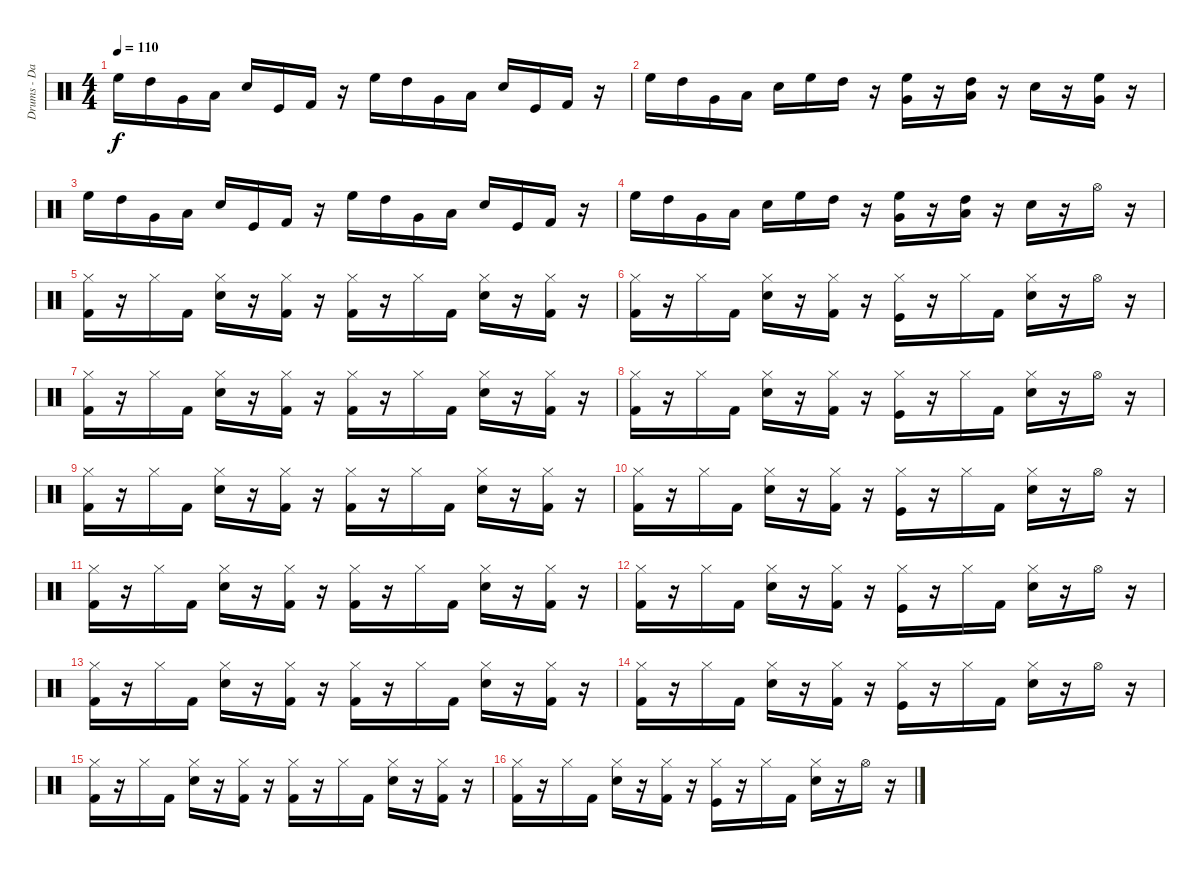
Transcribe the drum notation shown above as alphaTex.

\track ("Drums - David" "Drums - Da") {instrument percussion}
\staff {score}
\articulation defaults
\ts (4 4)
\tempo 110
\clef neutral
\ks c "High Floor Tom (hit)".16{dy f} "High Tom (hit)".16 "Very Low Tom (hit)".16 "Low Floor Tom (hit)".16 "Snare (hit) 2".16 "Kick (hit)".16 "Kick (hit) 2".16
r.16 "High Floor Tom (hit)".16 "High Tom (hit)".16 "Very Low Tom (hit)".16 "Low Floor Tom (hit)".16 "Snare (hit) 2".16 "Kick (hit)".16 "Kick (hit) 2".16 r.16 |
"High Floor Tom (hit)".16 "High Tom (hit)".16 "Very Low Tom (hit)".16 "Low Floor Tom (hit)".16 "Snare (hit) 2".16 "High Floor Tom (hit)".16 "High Tom (hit)".16 r.16 ("High Floor Tom (hit)" "Very Low Tom (hit)").16 r.16 ("High Tom (hit)" "Low Floor Tom (hit)").16 r.16 "Snare (hit) 2".16 r.16 ("High Floor Tom (hit)" "Very Low Tom (hit)").16 r.16 |
"High Floor Tom (hit)".16 "High Tom (hit)".16 "Very Low Tom (hit)".16 "Low Floor Tom (hit)".16 "Snare (hit) 2".16 "Kick (hit)".16 "Kick (hit) 2".16 r.16 "High Floor Tom (hit)".16 "High Tom (hit)".16 "Very Low Tom (hit)".16 "Low Floor Tom (hit)".16 "Snare (hit) 2".16 "Kick (hit)".16 "Kick (hit) 2".16 r.16 |
"High Floor Tom (hit)".16 "High Tom (hit)".16 "Very Low Tom (hit)".16 "Low Floor Tom (hit)".16 "Snare (hit) 2".16 "High Floor Tom (hit)".16 "High Tom (hit)".16 r.16 ("High Floor Tom (hit)" "Very Low Tom (hit)").16 r.16 ("High Tom (hit)" "Low Floor Tom (hit)").16 r.16 "Snare (hit) 2".16 r.16 "Hi-Hat (open)".16 r.16 |
("Hi-Hat (closed)" "Kick (hit) 2").16 r.16 "Hi-Hat (closed)".16 "Kick (hit) 2".16 ("Hi-Hat (closed)" "Snare (hit) 2").16 r.16 ("Hi-Hat (closed)" "Kick (hit) 2").16 r.16 ("Hi-Hat (closed)" "Kick (hit) 2").16 r.16 "Hi-Hat (closed)".16 "Kick (hit) 2".16 ("Hi-Hat (closed)" "Snare (hit) 2").16 r.16 ("Hi-Hat (closed)" "Kick (hit) 2").16 r.16 |
("Hi-Hat (closed)" "Kick (hit) 2").16 r.16 "Hi-Hat (closed)".16 "Kick (hit) 2".16 ("Hi-Hat (closed)" "Snare (hit) 2").16 r.16 ("Hi-Hat (closed)" "Kick (hit) 2").16 r.16 ("Hi-Hat (closed)" "Kick (hit)").16 r.16 "Hi-Hat (closed)".16 "Kick (hit) 2".16 ("Hi-Hat (closed)" "Snare (hit) 2").16 r.16 "Hi-Hat (open)".16 r.16 |
("Hi-Hat (closed)" "Kick (hit) 2").16 r.16 "Hi-Hat (closed)".16 "Kick (hit) 2".16 ("Hi-Hat (closed)" "Snare (hit) 2").16 r.16 ("Hi-Hat (closed)" "Kick (hit) 2").16 r.16 ("Hi-Hat (closed)" "Kick (hit) 2").16 r.16 "Hi-Hat (closed)".16 "Kick (hit) 2".16 ("Hi-Hat (closed)" "Snare (hit) 2").16 r.16 ("Hi-Hat (closed)" "Kick (hit) 2").16 r.16 |
("Hi-Hat (closed)" "Kick (hit) 2").16 r.16 "Hi-Hat (closed)".16 "Kick (hit) 2".16 ("Hi-Hat (closed)" "Snare (hit) 2").16 r.16 ("Hi-Hat (closed)" "Kick (hit) 2").16 r.16 ("Hi-Hat (closed)" "Kick (hit)").16 r.16 "Hi-Hat (closed)".16 "Kick (hit) 2".16 ("Hi-Hat (closed)" "Snare (hit) 2").16 r.16 "Hi-Hat (open)".16 r.16 |
("Hi-Hat (closed)" "Kick (hit) 2").16 r.16 "Hi-Hat (closed)".16 "Kick (hit) 2".16 ("Hi-Hat (closed)" "Snare (hit) 2").16 r.16 ("Hi-Hat (closed)" "Kick (hit) 2").16 r.16 ("Hi-Hat (closed)" "Kick (hit) 2").16 r.16 "Hi-Hat (closed)".16 "Kick (hit) 2".16 ("Hi-Hat (closed)" "Snare (hit) 2").16 r.16 ("Hi-Hat (closed)" "Kick (hit) 2").16 r.16 |
("Hi-Hat (closed)" "Kick (hit) 2").16 r.16 "Hi-Hat (closed)".16 "Kick (hit) 2".16 ("Hi-Hat (closed)" "Snare (hit) 2").16 r.16 ("Hi-Hat (closed)" "Kick (hit) 2").16 r.16 ("Hi-Hat (closed)" "Kick (hit)").16 r.16 "Hi-Hat (closed)".16 "Kick (hit) 2".16 ("Hi-Hat (closed)" "Snare (hit) 2").16 r.16 "Hi-Hat (open)".16 r.16 |
("Hi-Hat (closed)" "Kick (hit) 2").16 r.16 "Hi-Hat (closed)".16 "Kick (hit) 2".16 ("Hi-Hat (closed)" "Snare (hit) 2").16 r.16 ("Hi-Hat (closed)" "Kick (hit) 2").16 r.16 ("Hi-Hat (closed)" "Kick (hit) 2").16 r.16 "Hi-Hat (closed)".16 "Kick (hit) 2".16 ("Hi-Hat (closed)" "Snare (hit) 2").16 r.16 ("Hi-Hat (closed)" "Kick (hit) 2").16 r.16 |
("Hi-Hat (closed)" "Kick (hit) 2").16 r.16 "Hi-Hat (closed)".16 "Kick (hit) 2".16 ("Hi-Hat (closed)" "Snare (hit) 2").16 r.16 ("Hi-Hat (closed)" "Kick (hit) 2").16 r.16 ("Hi-Hat (closed)" "Kick (hit)").16 r.16 "Hi-Hat (closed)".16 "Kick (hit) 2".16 ("Hi-Hat (closed)" "Snare (hit) 2").16 r.16 "Hi-Hat (open)".16 r.16 |
("Hi-Hat (closed)" "Kick (hit) 2").16 r.16 "Hi-Hat (closed)".16 "Kick (hit) 2".16 ("Hi-Hat (closed)" "Snare (hit) 2").16 r.16 ("Hi-Hat (closed)" "Kick (hit) 2").16 r.16 ("Hi-Hat (closed)" "Kick (hit) 2").16 r.16 "Hi-Hat (closed)".16 "Kick (hit) 2".16 ("Hi-Hat (closed)" "Snare (hit) 2").16 r.16 ("Hi-Hat (closed)" "Kick (hit) 2").16 r.16 |
("Hi-Hat (closed)" "Kick (hit) 2").16 r.16 "Hi-Hat (closed)".16 "Kick (hit) 2".16 ("Hi-Hat (closed)" "Snare (hit) 2").16 r.16 ("Hi-Hat (closed)" "Kick (hit) 2").16 r.16 ("Hi-Hat (closed)" "Kick (hit)").16 r.16 "Hi-Hat (closed)".16 "Kick (hit) 2".16 ("Hi-Hat (closed)" "Snare (hit) 2").16 r.16 "Hi-Hat (open)".16 r.16 |
("Hi-Hat (closed)" "Kick (hit) 2").16 r.16 "Hi-Hat (closed)".16 "Kick (hit) 2".16 ("Hi-Hat (closed)" "Snare (hit) 2").16 r.16 ("Hi-Hat (closed)" "Kick (hit) 2").16 r.16 ("Hi-Hat (closed)" "Kick (hit) 2").16 r.16 "Hi-Hat (closed)".16 "Kick (hit) 2".16 ("Hi-Hat (closed)" "Snare (hit) 2").16 r.16 ("Hi-Hat (closed)" "Kick (hit) 2").16 r.16 |
("Hi-Hat (closed)" "Kick (hit) 2").16 r.16 "Hi-Hat (closed)".16 "Kick (hit) 2".16 ("Hi-Hat (closed)" "Snare (hit) 2").16 r.16 ("Hi-Hat (closed)" "Kick (hit) 2").16 r.16 ("Hi-Hat (closed)" "Kick (hit)").16 r.16 "Hi-Hat (closed)".16 "Kick (hit) 2".16 ("Hi-Hat (closed)" "Snare (hit) 2").16 r.16 "Hi-Hat (open)".16 r.16
